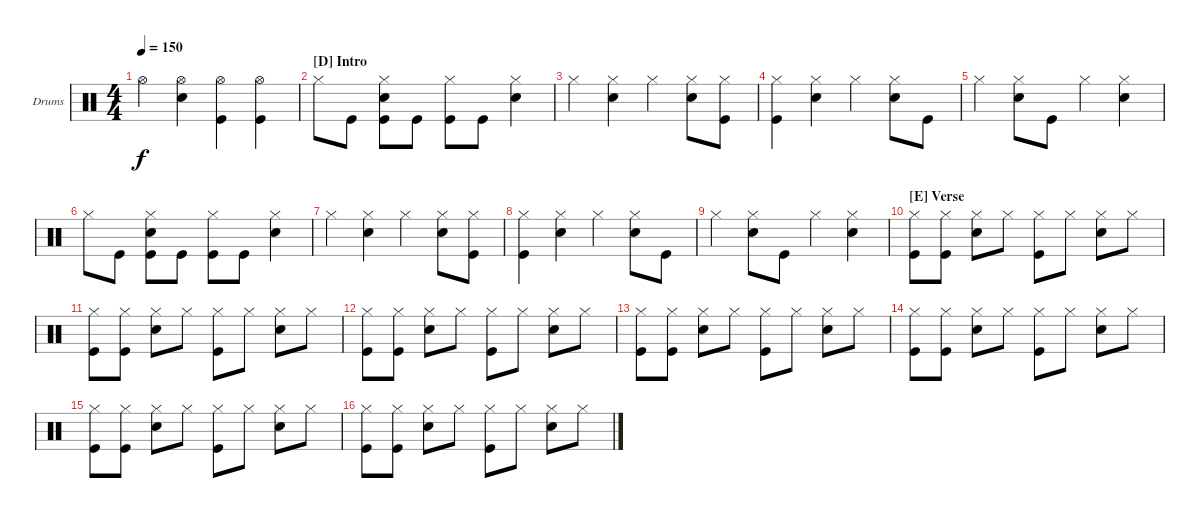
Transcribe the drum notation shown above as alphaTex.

\defaultSystemsLayout 4
\bracketExtendMode groupsimilarinstruments
\firstSystemTrackNameOrientation horizontal
\otherSystemsTrackNameOrientation horizontal
\track ("Drums" "Drums") {instrument percussion}
\staff {score}
\articulation defaults
\ts (4 4)
\tempo 150
\clef neutral
\scale
0.333333
\ks c "Hi-Hat (open)".4{dy f}
("Snare (hit) 2" "Hi-Hat (open)").4 ("Kick (hit)" "Hi-Hat (open)").4 ("Kick (hit)" "Hi-Hat (open)").4 |
\section ("D" "Intro")
\scale
0.333333 "Hi-Hat (closed)".8 "Kick (hit)".8 ("Snare (hit) 2" "Hi-Hat (closed)" "Kick (hit)").8 "Kick (hit)".8 ("Kick (hit)" "Hi-Hat (closed)").8 "Kick (hit)".8 ("Hi-Hat (closed)" "Snare (hit) 2").4 |
\scale
0.333333 "Hi-Hat (closed)".4 ("Snare (hit) 2" "Hi-Hat (closed)").4 "Hi-Hat (closed)".4 ("Snare (hit) 2" "Hi-Hat (closed)").8 ("Kick (hit)" "Hi-Hat (closed)").8 |
\scale
0.333333 ("Hi-Hat (closed)" "Kick (hit)").4 ("Snare (hit) 2" "Hi-Hat (closed)").4 "Hi-Hat (closed)".4 ("Snare (hit) 2" "Hi-Hat (closed)").8 "Kick (hit)".8 |
\scale
0.333333 "Hi-Hat (closed)".4 ("Snare (hit) 2" "Hi-Hat (closed)").8 "Kick (hit)".8 "Hi-Hat (closed)".4 ("Snare (hit) 2" "Hi-Hat (closed)").4 |
\scale
0.333333 "Hi-Hat (closed)".8 "Kick (hit)".8 ("Snare (hit) 2" "Hi-Hat (closed)" "Kick (hit)").8 "Kick (hit)".8 ("Kick (hit)" "Hi-Hat (closed)").8 "Kick (hit)".8 ("Hi-Hat (closed)" "Snare (hit) 2").4 |
\scale
0.333333 "Hi-Hat (closed)".4 ("Snare (hit) 2" "Hi-Hat (closed)").4 "Hi-Hat (closed)".4 ("Snare (hit) 2" "Hi-Hat (closed)").8 ("Kick (hit)" "Hi-Hat (closed)").8 |
\scale
0.333333 ("Hi-Hat (closed)" "Kick (hit)").4 ("Snare (hit) 2" "Hi-Hat (closed)").4 "Hi-Hat (closed)".4 ("Snare (hit) 2" "Hi-Hat (closed)").8 "Kick (hit)".8 |
\scale
0.333333 "Hi-Hat (closed)".4 ("Snare (hit) 2" "Hi-Hat (closed)").8 "Kick (hit)".8 "Hi-Hat (closed)".4 ("Snare (hit) 2" "Hi-Hat (closed)").4 |
\section ("E" "Verse")
\scale
0.333333 ("Kick (hit)" "Hi-Hat (closed)").8 ("Kick (hit)" "Hi-Hat (closed)").8 ("Hi-Hat (closed)" "Snare (hit) 2").8 "Hi-Hat (closed)".8 ("Kick (hit)" "Hi-Hat (closed)").8 "Hi-Hat (closed)".8 ("Hi-Hat (closed)" "Snare (hit) 2").8 "Hi-Hat (closed)".8 |
\scale
0.333333 ("Kick (hit)" "Hi-Hat (closed)").8 ("Kick (hit)" "Hi-Hat (closed)").8 ("Hi-Hat (closed)" "Snare (hit) 2").8 "Hi-Hat (closed)".8 ("Kick (hit)" "Hi-Hat (closed)").8 "Hi-Hat (closed)".8 ("Hi-Hat (closed)" "Snare (hit) 2").8 "Hi-Hat (closed)".8 |
\scale
0.333333 ("Kick (hit)" "Hi-Hat (closed)").8 ("Kick (hit)" "Hi-Hat (closed)").8 ("Hi-Hat (closed)" "Snare (hit) 2").8 "Hi-Hat (closed)".8 ("Kick (hit)" "Hi-Hat (closed)").8 "Hi-Hat (closed)".8 ("Hi-Hat (closed)" "Snare (hit) 2").8 "Hi-Hat (closed)".8 |
\scale
0.333333 ("Kick (hit)" "Hi-Hat (closed)").8 ("Kick (hit)" "Hi-Hat (closed)").8 ("Hi-Hat (closed)" "Snare (hit) 2").8 "Hi-Hat (closed)".8 ("Kick (hit)" "Hi-Hat (closed)").8 "Hi-Hat (closed)".8 ("Hi-Hat (closed)" "Snare (hit) 2").8 "Hi-Hat (closed)".8 |
\scale
0.333333 ("Kick (hit)" "Hi-Hat (closed)").8 ("Kick (hit)" "Hi-Hat (closed)").8 ("Hi-Hat (closed)" "Snare (hit) 2").8 "Hi-Hat (closed)".8 ("Kick (hit)" "Hi-Hat (closed)").8 "Hi-Hat (closed)".8 ("Hi-Hat (closed)" "Snare (hit) 2").8 "Hi-Hat (closed)".8 |
\scale
0.333333 ("Kick (hit)" "Hi-Hat (closed)").8 ("Kick (hit)" "Hi-Hat (closed)").8 ("Hi-Hat (closed)" "Snare (hit) 2").8 "Hi-Hat (closed)".8 ("Kick (hit)" "Hi-Hat (closed)").8 "Hi-Hat (closed)".8 ("Hi-Hat (closed)" "Snare (hit) 2").8 "Hi-Hat (closed)".8 |
\scale
0.333333 ("Kick (hit)" "Hi-Hat (closed)").8 ("Kick (hit)" "Hi-Hat (closed)").8 ("Hi-Hat (closed)" "Snare (hit) 2").8 "Hi-Hat (closed)".8 ("Kick (hit)" "Hi-Hat (closed)").8 "Hi-Hat (closed)".8 ("Hi-Hat (closed)" "Snare (hit) 2").8 "Hi-Hat (closed)".8
